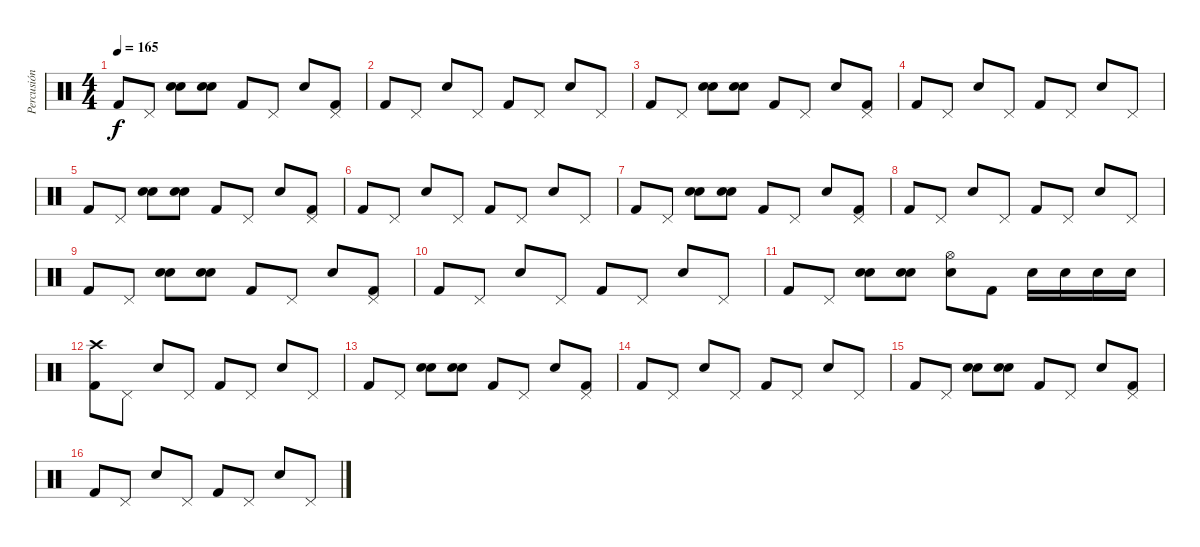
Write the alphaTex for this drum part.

\track ("Percusión" "Percusión") {instrument percussion}
\staff {score}
\articulation defaults
\ts (4 4)
\tempo 165
\clef neutral
\ks c "Kick (hit) 2".8{dy f} "Pedal Hi-Hat (hit)".8
("Snare (hit) 2" "Snare (hit) 2").8 ("Snare (hit) 2" "Snare (hit) 2").8 "Kick (hit) 2".8 "Pedal Hi-Hat (hit)".8 "Snare (hit) 2".8 ("Kick (hit) 2" "Pedal Hi-Hat (hit)").8 |
"Kick (hit) 2".8 "Pedal Hi-Hat (hit)".8 "Snare (hit) 2".8 "Pedal Hi-Hat (hit)".8 "Kick (hit) 2".8 "Pedal Hi-Hat (hit)".8 "Snare (hit) 2".8 "Pedal Hi-Hat (hit)".8 |
"Kick (hit) 2".8 "Pedal Hi-Hat (hit)".8 ("Snare (hit) 2" "Snare (hit) 2").8 ("Snare (hit) 2" "Snare (hit) 2").8 "Kick (hit) 2".8 "Pedal Hi-Hat (hit)".8 "Snare (hit) 2".8 ("Kick (hit) 2" "Pedal Hi-Hat (hit)").8 |
"Kick (hit) 2".8 "Pedal Hi-Hat (hit)".8 "Snare (hit) 2".8 "Pedal Hi-Hat (hit)".8 "Kick (hit) 2".8 "Pedal Hi-Hat (hit)".8 "Snare (hit) 2".8 "Pedal Hi-Hat (hit)".8 |
"Kick (hit) 2".8 "Pedal Hi-Hat (hit)".8 ("Snare (hit) 2" "Snare (hit) 2").8 ("Snare (hit) 2" "Snare (hit) 2").8 "Kick (hit) 2".8 "Pedal Hi-Hat (hit)".8 "Snare (hit) 2".8 ("Kick (hit) 2" "Pedal Hi-Hat (hit)").8 |
"Kick (hit) 2".8 "Pedal Hi-Hat (hit)".8 "Snare (hit) 2".8 "Pedal Hi-Hat (hit)".8 "Kick (hit) 2".8 "Pedal Hi-Hat (hit)".8 "Snare (hit) 2".8 "Pedal Hi-Hat (hit)".8 |
"Kick (hit) 2".8 "Pedal Hi-Hat (hit)".8 ("Snare (hit) 2" "Snare (hit) 2").8 ("Snare (hit) 2" "Snare (hit) 2").8 "Kick (hit) 2".8 "Pedal Hi-Hat (hit)".8 "Snare (hit) 2".8 ("Kick (hit) 2" "Pedal Hi-Hat (hit)").8 |
"Kick (hit) 2".8 "Pedal Hi-Hat (hit)".8 "Snare (hit) 2".8 "Pedal Hi-Hat (hit)".8 "Kick (hit) 2".8 "Pedal Hi-Hat (hit)".8 "Snare (hit) 2".8 "Pedal Hi-Hat (hit)".8 |
"Kick (hit) 2".8 "Pedal Hi-Hat (hit)".8 ("Snare (hit) 2" "Snare (hit) 2").8 ("Snare (hit) 2" "Snare (hit) 2").8 "Kick (hit) 2".8 "Pedal Hi-Hat (hit)".8 "Snare (hit) 2".8 ("Kick (hit) 2" "Pedal Hi-Hat (hit)").8 |
"Kick (hit) 2".8 "Pedal Hi-Hat (hit)".8 "Snare (hit) 2".8 "Pedal Hi-Hat (hit)".8 "Kick (hit) 2".8 "Pedal Hi-Hat (hit)".8 "Snare (hit) 2".8 "Pedal Hi-Hat (hit)".8 |
"Kick (hit) 2".8 "Pedal Hi-Hat (hit)".8 ("Snare (hit) 2" "Snare (hit) 2").8 ("Snare (hit) 2" "Snare (hit) 2").8 ("Hi-Hat (open)" "Snare (hit) 2").8 "Kick (hit) 2".8 "Snare (hit) 2".16 "Snare (hit) 2".16 "Snare (hit) 2".16 "Snare (hit) 2".16 |
("Crash high (hit)" "Kick (hit) 2").8 "Pedal Hi-Hat (hit)".8 "Snare (hit) 2".8 "Pedal Hi-Hat (hit)".8 "Kick (hit) 2".8 "Pedal Hi-Hat (hit)".8 "Snare (hit) 2".8 "Pedal Hi-Hat (hit)".8 |
"Kick (hit) 2".8 "Pedal Hi-Hat (hit)".8 ("Snare (hit) 2" "Snare (hit) 2").8 ("Snare (hit) 2" "Snare (hit) 2").8 "Kick (hit) 2".8 "Pedal Hi-Hat (hit)".8 "Snare (hit) 2".8 ("Kick (hit) 2" "Pedal Hi-Hat (hit)").8 |
"Kick (hit) 2".8 "Pedal Hi-Hat (hit)".8 "Snare (hit) 2".8 "Pedal Hi-Hat (hit)".8 "Kick (hit) 2".8 "Pedal Hi-Hat (hit)".8 "Snare (hit) 2".8 "Pedal Hi-Hat (hit)".8 |
"Kick (hit) 2".8 "Pedal Hi-Hat (hit)".8 ("Snare (hit) 2" "Snare (hit) 2").8 ("Snare (hit) 2" "Snare (hit) 2").8 "Kick (hit) 2".8 "Pedal Hi-Hat (hit)".8 "Snare (hit) 2".8 ("Kick (hit) 2" "Pedal Hi-Hat (hit)").8 |
"Kick (hit) 2".8 "Pedal Hi-Hat (hit)".8 "Snare (hit) 2".8 "Pedal Hi-Hat (hit)".8 "Kick (hit) 2".8 "Pedal Hi-Hat (hit)".8 "Snare (hit) 2".8 "Pedal Hi-Hat (hit)".8
